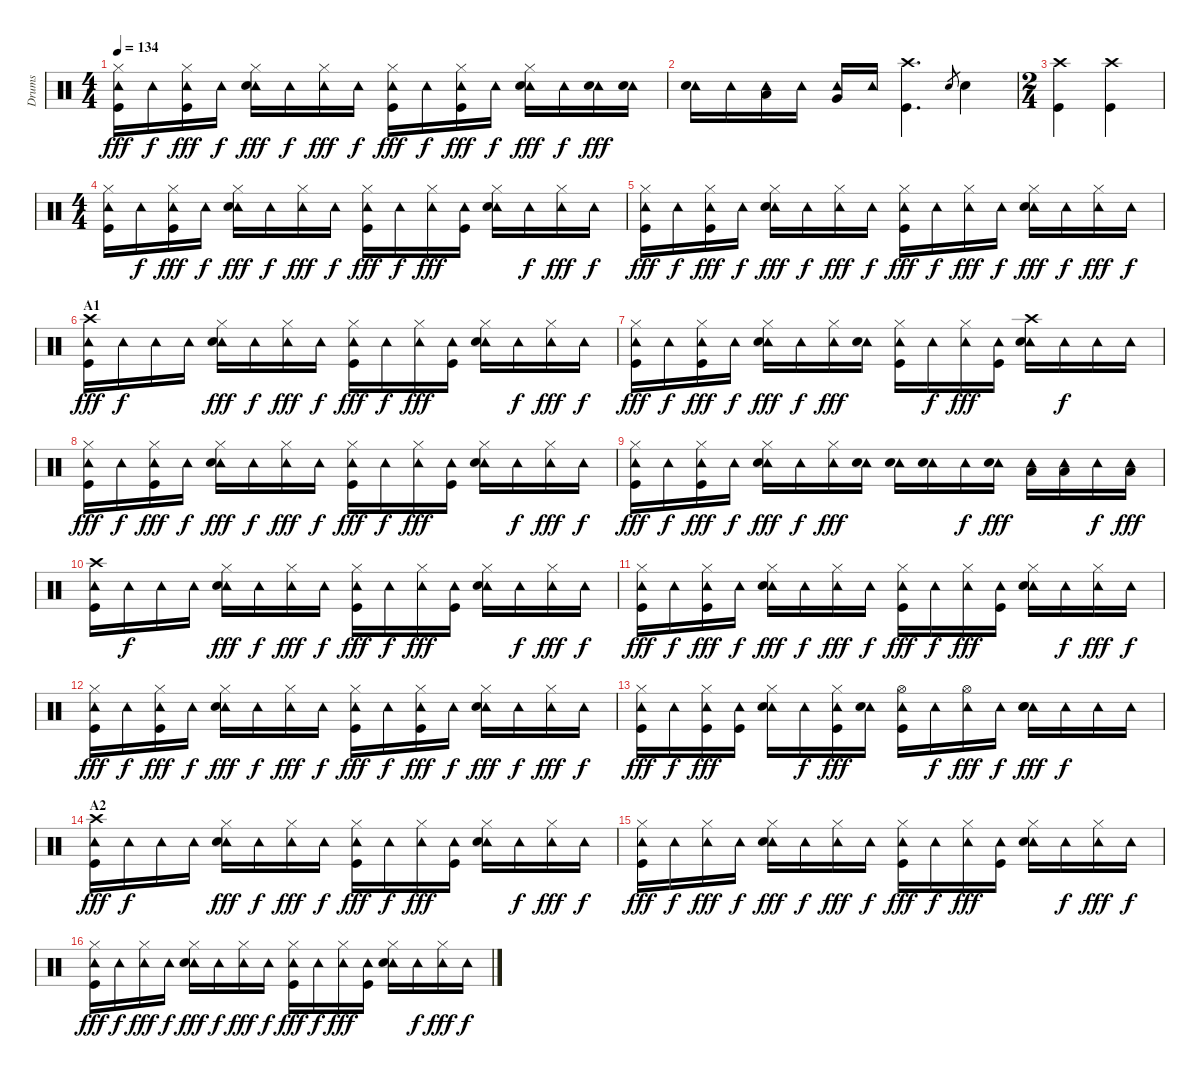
\track ("Drums" "Drums") {instrument percussion}
\staff {score}
\articulation defaults
\ts (4 4)
\tempo 134
\clef neutral
\ks c
("Hi-Hat (closed)" "Tambourine (hit)" "Kick (hit)").16{dy fff} "Tambourine (hit)".16{dy f} ("Hi-Hat (closed)" "Tambourine (hit)" "Kick (hit)").16{dy fff} "Tambourine (hit)".16{dy f} ("Hi-Hat (closed)" "Tambourine (hit)" "Snare (hit) 2").16{dy fff} "Tambourine (hit)".16{dy f} ("Hi-Hat (closed)" "Tambourine (hit)").16{dy fff} "Tambourine (hit)".16{dy f} ("Hi-Hat (closed)" "Tambourine (hit)" "Kick (hit)").16{dy fff} "Tambourine (hit)".16{dy f} ("Hi-Hat (closed)" "Tambourine (hit)" "Kick (hit)").16{dy fff} "Tambourine (hit)".16{dy f} ("Hi-Hat (closed)" "Tambourine (hit)" "Snare (hit) 2").16{dy fff} "Tambourine (hit)".16{dy f} ("Tambourine (hit)" "Snare (hit) 2").16{dy fff} ("Tambourine (hit)" "Snare (hit) 2").16 |
("Tambourine (hit)" "Snare (hit) 2").16 "Tambourine (hit)".16 ("Tambourine (hit)" "Low Tom (hit)").16 "Tambourine (hit)".16 ("Tambourine (hit)" "Very Low Tom (hit)").16 "Tambourine (hit)".16 ("Crash high (hit)" "Kick (hit)").4{d} "Snare (hit) 2".8{gr} "Snare (hit) 2".4 |
\ts (2 4)
("Crash high (hit)" "Kick (hit)").4 ("Crash high (hit)" "Kick (hit)").4 |
\ts (4 4)
("Hi-Hat (closed)" "Tambourine (hit)" "Kick (hit)").16 "Tambourine (hit)".16{dy f} ("Hi-Hat (closed)" "Tambourine (hit)" "Kick (hit)").16{dy fff} "Tambourine (hit)".16{dy f} ("Hi-Hat (closed)" "Tambourine (hit)" "Snare (hit) 2").16{dy fff} "Tambourine (hit)".16{dy f} ("Hi-Hat (closed)" "Tambourine (hit)").16{dy fff} "Tambourine (hit)".16{dy f} ("Hi-Hat (closed)" "Tambourine (hit)" "Kick (hit)").16{dy fff} "Tambourine (hit)".16{dy f} ("Hi-Hat (closed)" "Tambourine (hit)").16{dy fff} ("Tambourine (hit)" "Kick (hit)").16 ("Hi-Hat (closed)" "Tambourine (hit)" "Snare (hit) 2").16 "Tambourine (hit)".16{dy f} ("Hi-Hat (closed)" "Tambourine (hit)").16{dy fff} "Tambourine (hit)".16{dy f} |
("Hi-Hat (closed)" "Tambourine (hit)" "Kick (hit)").16{dy fff} "Tambourine (hit)".16{dy f} ("Hi-Hat (closed)" "Tambourine (hit)" "Kick (hit)").16{dy fff} "Tambourine (hit)".16{dy f} ("Hi-Hat (closed)" "Tambourine (hit)" "Snare (hit) 2").16{dy fff} "Tambourine (hit)".16{dy f} ("Hi-Hat (closed)" "Tambourine (hit)").16{dy fff} "Tambourine (hit)".16{dy f} ("Hi-Hat (closed)" "Tambourine (hit)" "Kick (hit)").16{dy fff} "Tambourine (hit)".16{dy f} ("Hi-Hat (closed)" "Tambourine (hit)").16{dy fff} "Tambourine (hit)".16{dy f} ("Hi-Hat (closed)" "Tambourine (hit)" "Snare (hit) 2").16{dy fff} "Tambourine (hit)".16{dy f} ("Hi-Hat (closed)" "Tambourine (hit)").16{dy fff} "Tambourine (hit)".16{dy f} |
\section ("" "A1")
("Crash high (hit)" "Tambourine (hit)" "Kick (hit)").16{dy fff} "Tambourine (hit)".16{dy f} "Tambourine (hit)".16 "Tambourine (hit)".16 ("Hi-Hat (closed)" "Tambourine (hit)" "Snare (hit) 2").16{dy fff} "Tambourine (hit)".16{dy f} ("Hi-Hat (closed)" "Tambourine (hit)").16{dy fff} "Tambourine (hit)".16{dy f} ("Hi-Hat (closed)" "Tambourine (hit)" "Kick (hit)").16{dy fff} "Tambourine (hit)".16{dy f} ("Hi-Hat (closed)" "Tambourine (hit)").16{dy fff} ("Tambourine (hit)" "Kick (hit)").16 ("Hi-Hat (closed)" "Tambourine (hit)" "Snare (hit) 2").16 "Tambourine (hit)".16{dy f} ("Hi-Hat (closed)" "Tambourine (hit)").16{dy fff} "Tambourine (hit)".16{dy f} |
("Hi-Hat (closed)" "Tambourine (hit)" "Kick (hit)").16{dy fff} "Tambourine (hit)".16{dy f} ("Hi-Hat (closed)" "Tambourine (hit)" "Kick (hit)").16{dy fff} "Tambourine (hit)".16{dy f} ("Hi-Hat (closed)" "Tambourine (hit)" "Snare (hit) 2").16{dy fff} "Tambourine (hit)".16{dy f} ("Hi-Hat (closed)" "Tambourine (hit)").16{dy fff} ("Tambourine (hit)" "Snare (hit) 2").16 ("Hi-Hat (closed)" "Tambourine (hit)" "Kick (hit)").16 "Tambourine (hit)".16{dy f} ("Hi-Hat (closed)" "Tambourine (hit)").16{dy fff} ("Tambourine (hit)" "Kick (hit)").16 ("Crash high (hit)" "Tambourine (hit)" "Snare (hit) 2").16 "Tambourine (hit)".16{dy f} "Tambourine (hit)".16 "Tambourine (hit)".16 |
("Hi-Hat (closed)" "Tambourine (hit)" "Kick (hit)").16{dy fff} "Tambourine (hit)".16{dy f} ("Hi-Hat (closed)" "Tambourine (hit)" "Kick (hit)").16{dy fff} "Tambourine (hit)".16{dy f} ("Hi-Hat (closed)" "Tambourine (hit)" "Snare (hit) 2").16{dy fff} "Tambourine (hit)".16{dy f} ("Hi-Hat (closed)" "Tambourine (hit)").16{dy fff} "Tambourine (hit)".16{dy f} ("Hi-Hat (closed)" "Tambourine (hit)" "Kick (hit)").16{dy fff} "Tambourine (hit)".16{dy f} ("Hi-Hat (closed)" "Tambourine (hit)").16{dy fff} ("Tambourine (hit)" "Kick (hit)").16 ("Hi-Hat (closed)" "Tambourine (hit)" "Snare (hit) 2").16 "Tambourine (hit)".16{dy f} ("Hi-Hat (closed)" "Tambourine (hit)").16{dy fff} "Tambourine (hit)".16{dy f} |
("Hi-Hat (closed)" "Tambourine (hit)" "Kick (hit)").16{dy fff} "Tambourine (hit)".16{dy f} ("Hi-Hat (closed)" "Tambourine (hit)" "Kick (hit)").16{dy fff} "Tambourine (hit)".16{dy f} ("Hi-Hat (closed)" "Tambourine (hit)" "Snare (hit) 2").16{dy fff} "Tambourine (hit)".16{dy f} ("Hi-Hat (closed)" "Tambourine (hit)").16{dy fff} ("Tambourine (hit)" "Snare (hit) 2").16 ("Tambourine (hit)" "Snare (hit) 2").16 ("Tambourine (hit)" "Snare (hit) 2").16 "Tambourine (hit)".16{dy f} ("Tambourine (hit)" "Snare (hit) 2").16{dy fff} ("Tambourine (hit)" "Low Tom (hit)").16 ("Tambourine (hit)" "Low Tom (hit)").16 "Tambourine (hit)".16{dy f} ("Tambourine (hit)" "Low Tom (hit)").16{dy fff} |
("Crash high (hit)" "Tambourine (hit)" "Kick (hit)").16 "Tambourine (hit)".16{dy f} "Tambourine (hit)".16 "Tambourine (hit)".16 ("Hi-Hat (closed)" "Tambourine (hit)" "Snare (hit) 2").16{dy fff} "Tambourine (hit)".16{dy f} ("Hi-Hat (closed)" "Tambourine (hit)").16{dy fff} "Tambourine (hit)".16{dy f} ("Hi-Hat (closed)" "Tambourine (hit)" "Kick (hit)").16{dy fff} "Tambourine (hit)".16{dy f} ("Hi-Hat (closed)" "Tambourine (hit)").16{dy fff} ("Tambourine (hit)" "Kick (hit)").16 ("Hi-Hat (closed)" "Tambourine (hit)" "Snare (hit) 2").16 "Tambourine (hit)".16{dy f} ("Hi-Hat (closed)" "Tambourine (hit)").16{dy fff} "Tambourine (hit)".16{dy f} |
("Hi-Hat (closed)" "Tambourine (hit)" "Kick (hit)").16{dy fff} "Tambourine (hit)".16{dy f} ("Hi-Hat (closed)" "Tambourine (hit)" "Kick (hit)").16{dy fff} "Tambourine (hit)".16{dy f} ("Hi-Hat (closed)" "Tambourine (hit)" "Snare (hit) 2").16{dy fff} "Tambourine (hit)".16{dy f} ("Hi-Hat (closed)" "Tambourine (hit)").16{dy fff} "Tambourine (hit)".16{dy f} ("Hi-Hat (closed)" "Tambourine (hit)" "Kick (hit)").16{dy fff} "Tambourine (hit)".16{dy f} ("Hi-Hat (closed)" "Tambourine (hit)").16{dy fff} ("Tambourine (hit)" "Kick (hit)").16 ("Hi-Hat (closed)" "Tambourine (hit)" "Snare (hit) 2").16 "Tambourine (hit)".16{dy f} ("Hi-Hat (closed)" "Tambourine (hit)").16{dy fff} "Tambourine (hit)".16{dy f} |
("Hi-Hat (closed)" "Tambourine (hit)" "Kick (hit)").16{dy fff} "Tambourine (hit)".16{dy f} ("Hi-Hat (closed)" "Tambourine (hit)" "Kick (hit)").16{dy fff} "Tambourine (hit)".16{dy f} ("Hi-Hat (closed)" "Tambourine (hit)" "Snare (hit) 2").16{dy fff} "Tambourine (hit)".16{dy f} ("Hi-Hat (closed)" "Tambourine (hit)").16{dy fff} "Tambourine (hit)".16{dy f} ("Hi-Hat (closed)" "Tambourine (hit)" "Kick (hit)").16{dy fff} "Tambourine (hit)".16{dy f} ("Hi-Hat (closed)" "Tambourine (hit)" "Kick (hit)").16{dy fff} "Tambourine (hit)".16{dy f} ("Hi-Hat (closed)" "Tambourine (hit)" "Snare (hit) 2").16{dy fff} "Tambourine (hit)".16{dy f} ("Hi-Hat (closed)" "Tambourine (hit)").16{dy fff} "Tambourine (hit)".16{dy f} |
("Hi-Hat (closed)" "Tambourine (hit)" "Kick (hit)").16{dy fff} "Tambourine (hit)".16{dy f} ("Hi-Hat (closed)" "Tambourine (hit)" "Kick (hit)").16{dy fff} ("Tambourine (hit)" "Kick (hit)").16 ("Hi-Hat (closed)" "Tambourine (hit)" "Snare (hit) 2").16 "Tambourine (hit)".16{dy f} ("Hi-Hat (closed)" "Tambourine (hit)" "Kick (hit)").16{dy fff} ("Tambourine (hit)" "Snare (hit) 2").16 ("Hi-Hat (open)" "Tambourine (hit)" "Kick (hit)").16 "Tambourine (hit)".16{dy f} ("Hi-Hat (open)" "Tambourine (hit)").16{dy fff} "Tambourine (hit)".16{dy f} ("Tambourine (hit)" "Snare (hit) 2" "Snare (hit) 2").16{dy fff} "Tambourine (hit)".16{dy f} "Tambourine (hit)".16 "Tambourine (hit)".16 |
\section ("" "A2")
("Crash high (hit)" "Tambourine (hit)" "Kick (hit)").16{dy fff} "Tambourine (hit)".16{dy f} "Tambourine (hit)".16 "Tambourine (hit)".16 ("Hi-Hat (closed)" "Tambourine (hit)" "Snare (hit) 2").16{dy fff} "Tambourine (hit)".16{dy f} ("Hi-Hat (closed)" "Tambourine (hit)").16{dy fff} "Tambourine (hit)".16{dy f} ("Hi-Hat (closed)" "Tambourine (hit)" "Kick (hit)").16{dy fff} "Tambourine (hit)".16{dy f} ("Hi-Hat (closed)" "Tambourine (hit)").16{dy fff} ("Tambourine (hit)" "Kick (hit)").16 ("Hi-Hat (closed)" "Tambourine (hit)" "Snare (hit) 2").16 "Tambourine (hit)".16{dy f} ("Hi-Hat (closed)" "Tambourine (hit)").16{dy fff} "Tambourine (hit)".16{dy f} |
("Hi-Hat (closed)" "Tambourine (hit)" "Kick (hit)").16{dy fff} "Tambourine (hit)".16{dy f} ("Hi-Hat (closed)" "Tambourine (hit)").16{dy fff} "Tambourine (hit)".16{dy f} ("Hi-Hat (closed)" "Tambourine (hit)" "Snare (hit) 2").16{dy fff} "Tambourine (hit)".16{dy f} ("Hi-Hat (closed)" "Tambourine (hit)").16{dy fff} "Tambourine (hit)".16{dy f} ("Hi-Hat (closed)" "Tambourine (hit)" "Kick (hit)").16{dy fff} "Tambourine (hit)".16{dy f} ("Hi-Hat (closed)" "Tambourine (hit)").16{dy fff} ("Tambourine (hit)" "Kick (hit)").16 ("Hi-Hat (closed)" "Tambourine (hit)" "Snare (hit) 2").16 "Tambourine (hit)".16{dy f} ("Hi-Hat (closed)" "Tambourine (hit)").16{dy fff} "Tambourine (hit)".16{dy f} |
("Hi-Hat (closed)" "Tambourine (hit)" "Kick (hit)").16{dy fff} "Tambourine (hit)".16{dy f} ("Hi-Hat (closed)" "Tambourine (hit)").16{dy fff} "Tambourine (hit)".16{dy f} ("Hi-Hat (closed)" "Tambourine (hit)" "Snare (hit) 2").16{dy fff} "Tambourine (hit)".16{dy f} ("Hi-Hat (closed)" "Tambourine (hit)").16{dy fff} "Tambourine (hit)".16{dy f} ("Hi-Hat (closed)" "Tambourine (hit)" "Kick (hit)").16{dy fff} "Tambourine (hit)".16{dy f} ("Hi-Hat (closed)" "Tambourine (hit)").16{dy fff} ("Tambourine (hit)" "Kick (hit)").16 ("Hi-Hat (closed)" "Tambourine (hit)" "Snare (hit) 2").16 "Tambourine (hit)".16{dy f} ("Hi-Hat (closed)" "Tambourine (hit)").16{dy fff} "Tambourine (hit)".16{dy f}
